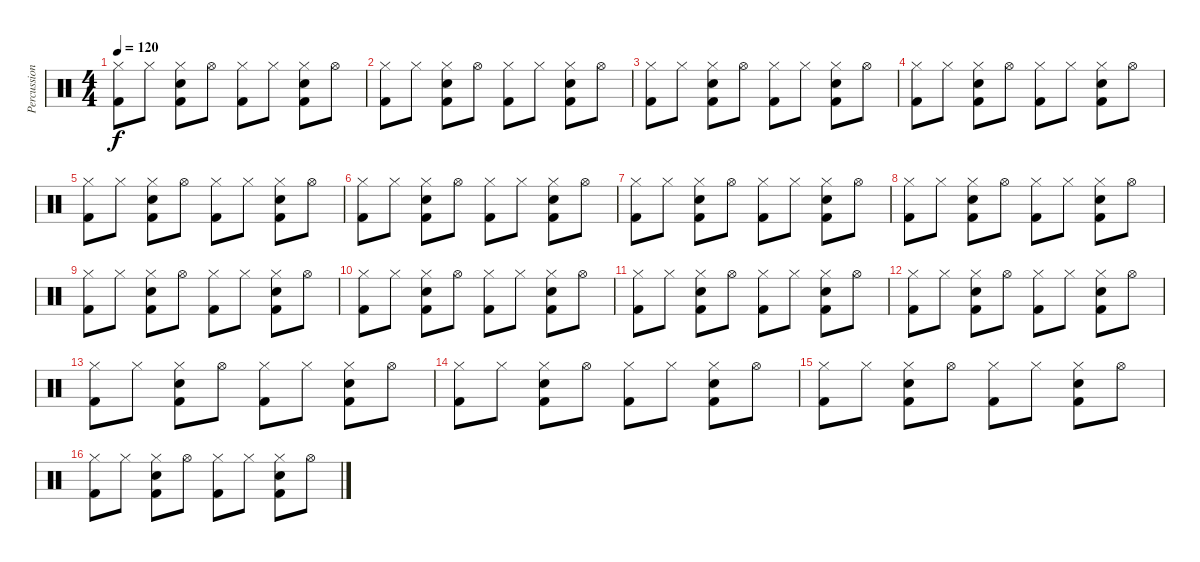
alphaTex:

\track ("Percussion" "Percussion") {instrument percussion}
\staff {score}
\articulation defaults
\ts (4 4)
\tempo 120
\clef neutral
\ks c
("Hi-Hat (closed)" "Kick (hit) 2").8{dy f} "Hi-Hat (closed)".8 ("Hi-Hat (closed)" "Snare (hit) 2" "Kick (hit) 2").8 "Hi-Hat (open)".8 ("Hi-Hat (closed)" "Kick (hit) 2").8 "Hi-Hat (closed)".8 ("Hi-Hat (closed)" "Snare (hit) 2" "Kick (hit) 2").8 "Hi-Hat (open)".8 |
("Hi-Hat (closed)" "Kick (hit) 2").8 "Hi-Hat (closed)".8 ("Hi-Hat (closed)" "Snare (hit) 2" "Kick (hit) 2").8 "Hi-Hat (open)".8 ("Hi-Hat (closed)" "Kick (hit) 2").8 "Hi-Hat (closed)".8 ("Hi-Hat (closed)" "Snare (hit) 2" "Kick (hit) 2").8 "Hi-Hat (open)".8 |
("Hi-Hat (closed)" "Kick (hit) 2").8 "Hi-Hat (closed)".8 ("Hi-Hat (closed)" "Snare (hit) 2" "Kick (hit) 2").8 "Hi-Hat (open)".8 ("Hi-Hat (closed)" "Kick (hit) 2").8 "Hi-Hat (closed)".8 ("Hi-Hat (closed)" "Snare (hit) 2" "Kick (hit) 2").8 "Hi-Hat (open)".8 |
("Hi-Hat (closed)" "Kick (hit) 2").8 "Hi-Hat (closed)".8 ("Hi-Hat (closed)" "Snare (hit) 2" "Kick (hit) 2").8 "Hi-Hat (open)".8 ("Hi-Hat (closed)" "Kick (hit) 2").8 "Hi-Hat (closed)".8 ("Hi-Hat (closed)" "Snare (hit) 2" "Kick (hit) 2").8 "Hi-Hat (open)".8 |
("Hi-Hat (closed)" "Kick (hit) 2").8 "Hi-Hat (closed)".8 ("Hi-Hat (closed)" "Snare (hit) 2" "Kick (hit) 2").8 "Hi-Hat (open)".8 ("Hi-Hat (closed)" "Kick (hit) 2").8 "Hi-Hat (closed)".8 ("Hi-Hat (closed)" "Snare (hit) 2" "Kick (hit) 2").8 "Hi-Hat (open)".8 |
("Hi-Hat (closed)" "Kick (hit) 2").8 "Hi-Hat (closed)".8 ("Hi-Hat (closed)" "Snare (hit) 2" "Kick (hit) 2").8 "Hi-Hat (open)".8 ("Hi-Hat (closed)" "Kick (hit) 2").8 "Hi-Hat (closed)".8 ("Hi-Hat (closed)" "Snare (hit) 2" "Kick (hit) 2").8 "Hi-Hat (open)".8 |
("Hi-Hat (closed)" "Kick (hit) 2").8 "Hi-Hat (closed)".8 ("Hi-Hat (closed)" "Snare (hit) 2" "Kick (hit) 2").8 "Hi-Hat (open)".8 ("Hi-Hat (closed)" "Kick (hit) 2").8 "Hi-Hat (closed)".8 ("Hi-Hat (closed)" "Snare (hit) 2" "Kick (hit) 2").8 "Hi-Hat (open)".8 |
("Hi-Hat (closed)" "Kick (hit) 2").8 "Hi-Hat (closed)".8 ("Hi-Hat (closed)" "Snare (hit) 2" "Kick (hit) 2").8 "Hi-Hat (open)".8 ("Hi-Hat (closed)" "Kick (hit) 2").8 "Hi-Hat (closed)".8 ("Hi-Hat (closed)" "Snare (hit) 2" "Kick (hit) 2").8 "Hi-Hat (open)".8 |
("Hi-Hat (closed)" "Kick (hit) 2").8 "Hi-Hat (closed)".8 ("Hi-Hat (closed)" "Snare (hit) 2" "Kick (hit) 2").8 "Hi-Hat (open)".8 ("Hi-Hat (closed)" "Kick (hit) 2").8 "Hi-Hat (closed)".8 ("Hi-Hat (closed)" "Snare (hit) 2" "Kick (hit) 2").8 "Hi-Hat (open)".8 |
("Hi-Hat (closed)" "Kick (hit) 2").8 "Hi-Hat (closed)".8 ("Hi-Hat (closed)" "Snare (hit) 2" "Kick (hit) 2").8 "Hi-Hat (open)".8 ("Hi-Hat (closed)" "Kick (hit) 2").8 "Hi-Hat (closed)".8 ("Hi-Hat (closed)" "Snare (hit) 2" "Kick (hit) 2").8 "Hi-Hat (open)".8 |
("Hi-Hat (closed)" "Kick (hit) 2").8 "Hi-Hat (closed)".8 ("Hi-Hat (closed)" "Snare (hit) 2" "Kick (hit) 2").8 "Hi-Hat (open)".8 ("Hi-Hat (closed)" "Kick (hit) 2").8 "Hi-Hat (closed)".8 ("Hi-Hat (closed)" "Snare (hit) 2" "Kick (hit) 2").8 "Hi-Hat (open)".8 |
("Hi-Hat (closed)" "Kick (hit) 2").8 "Hi-Hat (closed)".8 ("Hi-Hat (closed)" "Snare (hit) 2" "Kick (hit) 2").8 "Hi-Hat (open)".8 ("Hi-Hat (closed)" "Kick (hit) 2").8 "Hi-Hat (closed)".8 ("Hi-Hat (closed)" "Snare (hit) 2" "Kick (hit) 2").8 "Hi-Hat (open)".8 |
("Hi-Hat (closed)" "Kick (hit) 2").8 "Hi-Hat (closed)".8 ("Hi-Hat (closed)" "Snare (hit) 2" "Kick (hit) 2").8 "Hi-Hat (open)".8 ("Hi-Hat (closed)" "Kick (hit) 2").8 "Hi-Hat (closed)".8 ("Hi-Hat (closed)" "Snare (hit) 2" "Kick (hit) 2").8 "Hi-Hat (open)".8 |
("Hi-Hat (closed)" "Kick (hit) 2").8 "Hi-Hat (closed)".8 ("Hi-Hat (closed)" "Snare (hit) 2" "Kick (hit) 2").8 "Hi-Hat (open)".8 ("Hi-Hat (closed)" "Kick (hit) 2").8 "Hi-Hat (closed)".8 ("Hi-Hat (closed)" "Snare (hit) 2" "Kick (hit) 2").8 "Hi-Hat (open)".8 |
("Hi-Hat (closed)" "Kick (hit) 2").8 "Hi-Hat (closed)".8 ("Hi-Hat (closed)" "Snare (hit) 2" "Kick (hit) 2").8 "Hi-Hat (open)".8 ("Hi-Hat (closed)" "Kick (hit) 2").8 "Hi-Hat (closed)".8 ("Hi-Hat (closed)" "Snare (hit) 2" "Kick (hit) 2").8 "Hi-Hat (open)".8 |
("Hi-Hat (closed)" "Kick (hit) 2").8 "Hi-Hat (closed)".8 ("Hi-Hat (closed)" "Snare (hit) 2" "Kick (hit) 2").8 "Hi-Hat (open)".8 ("Hi-Hat (closed)" "Kick (hit) 2").8 "Hi-Hat (closed)".8 ("Hi-Hat (closed)" "Snare (hit) 2" "Kick (hit) 2").8 "Hi-Hat (open)".8
